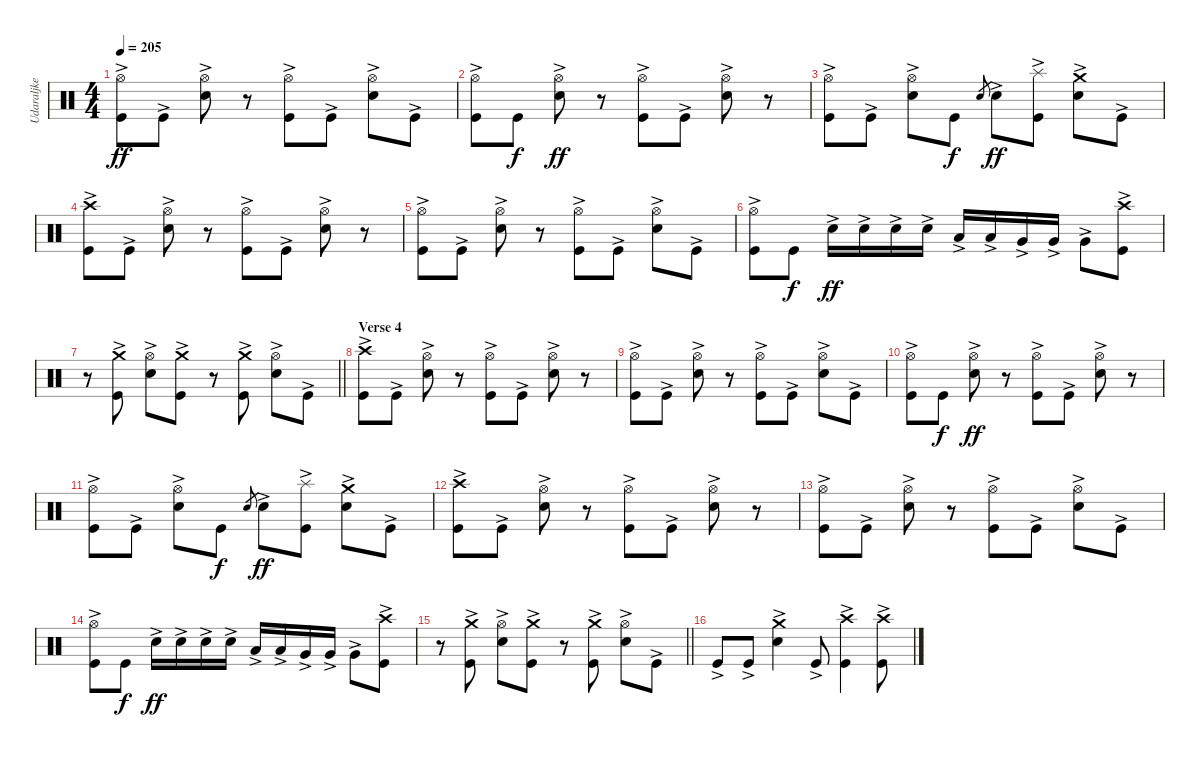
\track ("Udaraljke" "Udaraljke") {instrument percussion}
\staff {score}
\articulation defaults
\ts (4 4)
\tempo 205
\clef neutral
\ks c
("Hi-Hat (open)" "Kick (hit)"{ac}).8{dy ff} "Kick (hit)"{ac}.8 ("Hi-Hat (open)" "Snare (hit) 2"{ac}).8 r.8 ("Hi-Hat (open)" "Kick (hit)"{ac}).8 "Kick (hit)"{ac}.8 ("Hi-Hat (open)" "Snare (hit) 2"{ac}).8 "Kick (hit)"{ac}.8 |
("Kick (hit)"{ac} "Hi-Hat (open)").8 "Kick (hit)".8{dy f} ("Hi-Hat (open)" "Snare (hit) 2"{ac}).8{dy ff} r.8 ("Hi-Hat (open)" "Kick (hit)"{ac}).8 "Kick (hit)"{ac}.8 ("Hi-Hat (open)" "Snare (hit) 2"{ac}).8 r.8 |
("Hi-Hat (open)" "Kick (hit)"{ac}).8 "Kick (hit)"{ac}.8 ("Hi-Hat (open)" "Snare (hit) 2"{ac}).8 "Kick (hit)".8{dy f} "Snare (hit) 2".8{gr} "Snare (hit) 2"{ac}.8{dy ff} ("Kick (hit)" "Splash (hit)"{ac}).8 ("Crash medium (hit)" "Snare (hit) 2"{ac}).8 "Kick (hit)"{ac}.8 |
("Kick (hit)"{ac} "Crash high (hit)").8 "Kick (hit)"{ac}.8 ("Hi-Hat (open)" "Snare (hit) 2"{ac}).8 r.8 ("Hi-Hat (open)" "Kick (hit)"{ac}).8 "Kick (hit)"{ac}.8 ("Hi-Hat (open)" "Snare (hit) 2"{ac}).8 r.8 |
("Hi-Hat (open)" "Kick (hit)"{ac}).8 "Kick (hit)"{ac}.8 ("Hi-Hat (open)" "Snare (hit) 2"{ac}).8 r.8 ("Hi-Hat (open)" "Kick (hit)"{ac}).8 "Kick (hit)"{ac}.8 ("Hi-Hat (open)" "Snare (hit) 2"{ac}).8 "Kick (hit)"{ac}.8 |
("Kick (hit)"{ac} "Hi-Hat (open)").8 "Kick (hit)".8{dy f} "Snare (hit) 2"{ac}.16{dy ff} "Snare (hit) 2"{ac}.16 "Snare (hit) 2"{ac}.16 "Snare (hit) 2"{ac}.16 "Low Tom (hit)"{ac}.16 "Low Tom (hit)"{ac}.16 "Very Low Tom (hit)"{ac}.16 "Very Low Tom (hit)"{ac}.16 "Very Low Tom (hit)"{ac}.8 ("Kick (hit)"{ac} "Crash high (hit)").8 |
\barLineRight lightlight
r.8 ("Kick (hit)"{ac} "Crash medium (hit)").8 ("Snare (hit) 2"{ac} "Hi-Hat (open)").8 ("Kick (hit)"{ac} "Crash medium (hit)").8 r.8 ("Kick (hit)"{ac} "Crash medium (hit)").8 ("Snare (hit) 2"{ac} "Hi-Hat (open)").8 "Kick (hit)"{ac}.8 |
\section ("" "Verse 4")
("Kick (hit)"{ac} "Crash high (hit)").8 "Kick (hit)"{ac}.8 ("Hi-Hat (open)" "Snare (hit) 2"{ac}).8 r.8 ("Hi-Hat (open)" "Kick (hit)"{ac}).8 "Kick (hit)"{ac}.8 ("Hi-Hat (open)" "Snare (hit) 2"{ac}).8 r.8 |
("Hi-Hat (open)" "Kick (hit)"{ac}).8 "Kick (hit)"{ac}.8 ("Hi-Hat (open)" "Snare (hit) 2"{ac}).8 r.8 ("Hi-Hat (open)" "Kick (hit)"{ac}).8 "Kick (hit)"{ac}.8 ("Hi-Hat (open)" "Snare (hit) 2"{ac}).8 "Kick (hit)"{ac}.8 |
("Kick (hit)"{ac} "Hi-Hat (open)").8 "Kick (hit)".8{dy f} ("Hi-Hat (open)" "Snare (hit) 2"{ac}).8{dy ff} r.8 ("Hi-Hat (open)" "Kick (hit)"{ac}).8 "Kick (hit)"{ac}.8 ("Hi-Hat (open)" "Snare (hit) 2"{ac}).8 r.8 |
("Hi-Hat (open)" "Kick (hit)"{ac}).8 "Kick (hit)"{ac}.8 ("Hi-Hat (open)" "Snare (hit) 2"{ac}).8 "Kick (hit)".8{dy f} "Snare (hit) 2".8{gr} "Snare (hit) 2"{ac}.8{dy ff} ("Kick (hit)" "Splash (hit)"{ac}).8 ("Crash medium (hit)" "Snare (hit) 2"{ac}).8 "Kick (hit)"{ac}.8 |
("Kick (hit)"{ac} "Crash high (hit)").8 "Kick (hit)"{ac}.8 ("Hi-Hat (open)" "Snare (hit) 2"{ac}).8 r.8 ("Hi-Hat (open)" "Kick (hit)"{ac}).8 "Kick (hit)"{ac}.8 ("Hi-Hat (open)" "Snare (hit) 2"{ac}).8 r.8 |
("Hi-Hat (open)" "Kick (hit)"{ac}).8 "Kick (hit)"{ac}.8 ("Hi-Hat (open)" "Snare (hit) 2"{ac}).8 r.8 ("Hi-Hat (open)" "Kick (hit)"{ac}).8 "Kick (hit)"{ac}.8 ("Hi-Hat (open)" "Snare (hit) 2"{ac}).8 "Kick (hit)"{ac}.8 |
("Kick (hit)"{ac} "Hi-Hat (open)").8 "Kick (hit)".8{dy f} "Snare (hit) 2"{ac}.16{dy ff} "Snare (hit) 2"{ac}.16 "Snare (hit) 2"{ac}.16 "Snare (hit) 2"{ac}.16 "Low Tom (hit)"{ac}.16 "Low Tom (hit)"{ac}.16 "Very Low Tom (hit)"{ac}.16 "Very Low Tom (hit)"{ac}.16 "Very Low Tom (hit)"{ac}.8 ("Kick (hit)"{ac} "Crash high (hit)").8 |
\barLineRight lightlight
r.8 ("Kick (hit)"{ac} "Crash medium (hit)").8 ("Snare (hit) 2"{ac} "Hi-Hat (open)").8 ("Kick (hit)"{ac} "Crash medium (hit)").8 r.8 ("Kick (hit)"{ac} "Crash medium (hit)").8 ("Snare (hit) 2"{ac} "Hi-Hat (open)").8 "Kick (hit)"{ac}.8 |
\section ("" "")
"Kick (hit)"{ac}.8 "Kick (hit)"{ac}.8 ("Snare (hit) 2"{ac} "Crash medium (hit)").4 "Kick (hit)"{ac}.8 ("Kick (hit)"{ac} "Crash high (hit)").4 ("Kick (hit)"{ac} "Crash high (hit)").8
